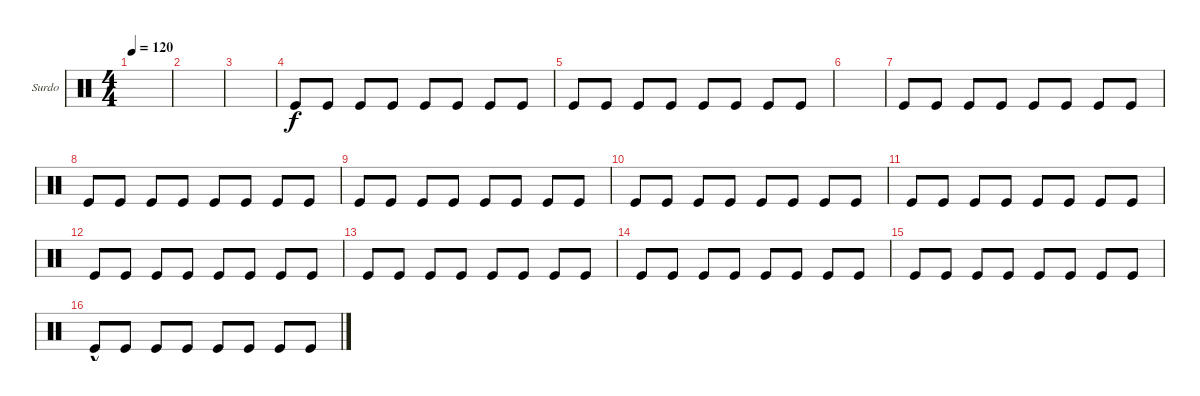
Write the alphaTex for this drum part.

\defaultSystemsLayout 4
\bracketExtendMode groupsimilarinstruments
\firstSystemTrackNameOrientation horizontal
\otherSystemsTrackNameOrientation horizontal
\track ("Surdo" "Surdo") {instrument percussion}
\staff {score}
\articulation defaults
\ts (4 4)
\tempo 120
\clef neutral
\scale
0.333333
\ks c
|
\scale
0.333333 |
\scale
0.333333 |
\scale
0.333333 "Kick (hit)".8 "Kick (hit)".8 "Kick (hit)".8 "Kick (hit)".8 "Kick (hit)".8 "Kick (hit)".8 "Kick (hit)".8 "Kick (hit)".8 |
\scale
0.333333 "Kick (hit)".8 "Kick (hit)".8 "Kick (hit)".8 "Kick (hit)".8 "Kick (hit)".8 "Kick (hit)".8 "Kick (hit)".8 "Kick (hit)".8 |
\scale
0.333333 |
\scale
0.333333 "Kick (hit)".8 "Kick (hit)".8 "Kick (hit)".8 "Kick (hit)".8 "Kick (hit)".8 "Kick (hit)".8 "Kick (hit)".8 "Kick (hit)".8 |
\scale
0.333333 "Kick (hit)".8 "Kick (hit)".8 "Kick (hit)".8 "Kick (hit)".8 "Kick (hit)".8 "Kick (hit)".8 "Kick (hit)".8 "Kick (hit)".8 |
\scale
0.333333 "Kick (hit)".8 "Kick (hit)".8 "Kick (hit)".8 "Kick (hit)".8 "Kick (hit)".8 "Kick (hit)".8 "Kick (hit)".8 "Kick (hit)".8 |
\scale
0.333333 "Kick (hit)".8 "Kick (hit)".8 "Kick (hit)".8 "Kick (hit)".8 "Kick (hit)".8 "Kick (hit)".8 "Kick (hit)".8 "Kick (hit)".8 |
\scale
0.333333 "Kick (hit)".8 "Kick (hit)".8 "Kick (hit)".8 "Kick (hit)".8 "Kick (hit)".8 "Kick (hit)".8 "Kick (hit)".8 "Kick (hit)".8 |
\scale
0.333333 "Kick (hit)".8 "Kick (hit)".8 "Kick (hit)".8 "Kick (hit)".8 "Kick (hit)".8 "Kick (hit)".8 "Kick (hit)".8 "Kick (hit)".8 |
\scale
0.333333 "Kick (hit)".8 "Kick (hit)".8 "Kick (hit)".8 "Kick (hit)".8 "Kick (hit)".8 "Kick (hit)".8 "Kick (hit)".8 "Kick (hit)".8 |
\scale
0.333333 "Kick (hit)".8 "Kick (hit)".8 "Kick (hit)".8 "Kick (hit)".8 "Kick (hit)".8 "Kick (hit)".8 "Kick (hit)".8 "Kick (hit)".8 |
\scale
0.333333 "Kick (hit)".8 "Kick (hit)".8 "Kick (hit)".8 "Kick (hit)".8 "Kick (hit)".8 "Kick (hit)".8 "Kick (hit)".8 "Kick (hit)".8 |
\scale
0.333333 "Kick (hit)"{hac}.8 "Kick (hit)".8 "Kick (hit)".8 "Kick (hit)".8 "Kick (hit)".8 "Kick (hit)".8 "Kick (hit)".8 "Kick (hit)".8
